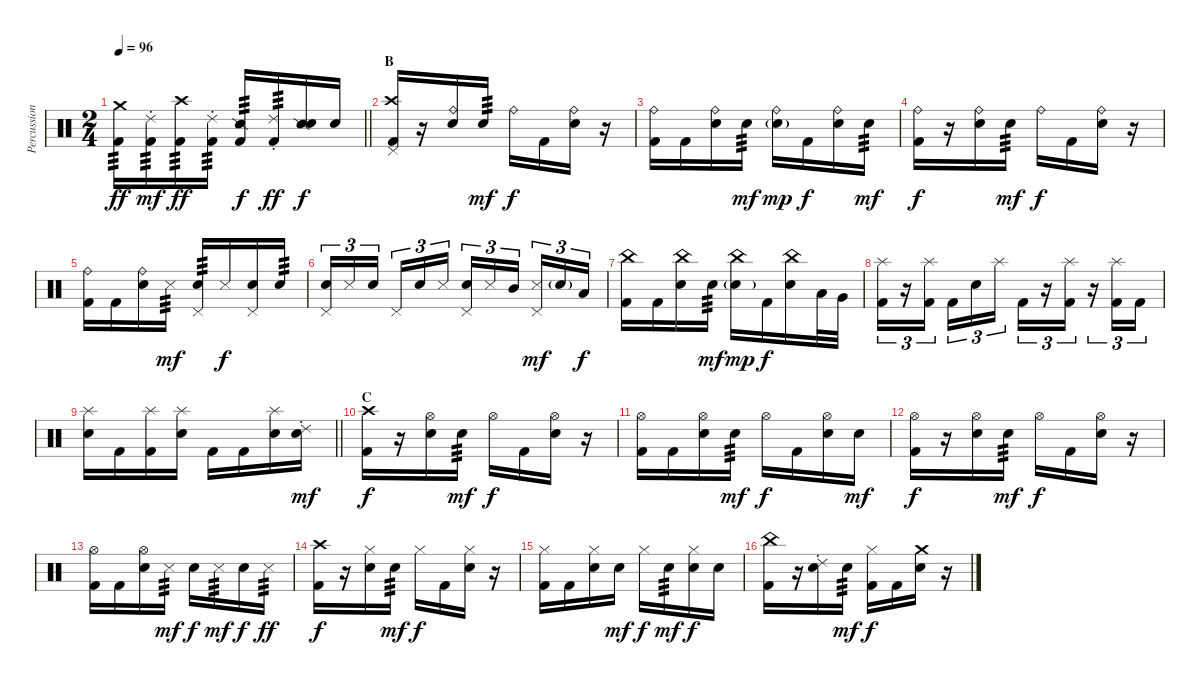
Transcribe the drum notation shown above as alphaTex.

\track ("Percussion" "Percussion") {instrument percussion}
\staff {score}
\articulation defaults
\ts (2 4)
\tempo 96
\clef neutral
\barLineRight lightlight
\ks c
("Crash medium (hit)" "Kick (hit) 2").16{tp 3 dy ff} ("Ride (choke) 2" "Kick (hit) 2").16{tp 3 dy mf} ("Crash high (hit)" "Kick (hit) 2").16{tp 3 dy ff} ("Ride (choke) 2" "Kick (hit) 2").16{tp 3} ("Snare (side stick) 2" "Kick (hit) 2").16{tp 3 dy f} ("Ride (choke) 2" "Kick (hit) 2").16{tp 3 dy ff} ("Snare (side stick) 2" "Snare (hit) 2").16{dy f} "Snare (hit)".16 |
\section ("" "B")
("Crash high (hit)" "Pedal Hi-Hat (hit)" "Kick (hit) 2").16 r.16 ("Ride (bell)" "Snare (hit) 2").16 "Snare (hit) 2".16{tp 3 dy mf} "Ride (bell)".16{dy f} "Kick (hit) 2".16 ("Ride (bell)" "Snare (hit) 2").16 r.16 |
("Ride (bell)" "Kick (hit) 2").16 "Kick (hit) 2".16 ("Ride (bell)" "Snare (hit) 2").16 "Snare (hit) 2".16{tp 3 dy mf} ("Ride (bell)" "Snare (hit) 2"{g}).16{dy mp} "Kick (hit) 2".16{dy f} ("Ride (bell)" "Snare (hit) 2").16 "Snare (hit) 2".16{tp 3 dy mf} |
("Ride (bell)" "Kick (hit) 2").16{dy f} r.16 ("Ride (bell)" "Snare (hit) 2").16 "Snare (hit) 2".16{tp 3 dy mf} "Ride (bell)".16{dy f} "Kick (hit) 2".16 ("Ride (bell)" "Snare (hit) 2").16 r.16 |
("Ride (bell)" "Kick (hit) 2").16 "Kick (hit) 2".16 ("Ride (bell)" "Snare (hit) 2").16 "Metronome (hit)".16{tp 3 dy mf} ("Pedal Hi-Hat (hit)" "Snare (hit) 2").16{tp 3} "Metronome (hit)".16{dy f} ("Pedal Hi-Hat (hit)" "Snare (hit) 2").16 "Snare (hit) 2".16{tp 3} |
("Pedal Hi-Hat (hit)" "Snare (hit) 2").16{tu (3 2)} "Metronome (hit)".16{tu (3 2)} "Snare (hit) 2".16{tu (3 2) beam splitsecondary} "Pedal Hi-Hat (hit)".16{tu (3 2)} "Snare (hit) 2".16{tu (3 2)} "Metronome (hit)".16{tu (3 2)} ("Pedal Hi-Hat (hit)" "Snare (hit) 2").16{tu (3 2)} "Metronome (hit)".16{tu (3 2)} "Mid Tom (hit)".16{tu (3 2) beam splitsecondary} ("Pedal Hi-Hat (hit)" "Metronome (hit)").16{tu (3 2) dy mf} "Snare (hit) 2"{g}.16{tu (3 2)} "Low Tom (hit)".16{tu (3 2) dy f} |
("China (hit)" "Kick (hit) 2").16 "Kick (hit) 2".16 ("China (hit)" "Snare (hit) 2").16 "Snare (hit) 2".16{tp 3 dy mf} ("China (hit)" "Snare (hit) 2"{g}).16{dy mp} "Kick (hit) 2".16{dy f} ("China (hit)" "Snare (hit) 2").16 "Low Tom (hit)".32 "Very Low Tom (hit)".32 |
("Splash (hit)" "Kick (hit) 2").16{tu (3 2)} r.16{tu (3 2)} ("Splash (hit)" "Kick (hit) 2").16{tu (3 2) beam splitsecondary} "Kick (hit) 2".16{tu (3 2)} "Snare (hit) 2".16{tu (3 2)} "Splash (hit)".16{tu (3 2)} "Kick (hit) 2".16{tu (3 2)} r.16{tu (3 2)} ("Splash (hit)" "Kick (hit) 2").16{tu (3 2)} r.16{tu (3 2)} ("Splash (hit)" "Kick (hit) 2").16{tu (3 2)} "Kick (hit) 2".16{tu (3 2)} |
\barLineRight lightlight
("Splash (hit)" "Snare (hit) 2").16 "Kick (hit) 2".16 ("Splash (hit)" "Kick (hit) 2").16 ("Splash (hit)" "Snare (hit) 2").16 "Kick (hit) 2".16 "Kick (hit) 2".16 ("Splash (hit)" "Snare (hit) 2").16 ("Ride (choke) 2" "Snare (hit) 2").16{dy mf} |
\section ("" "C")
("Crash high (hit)" "Kick (hit) 2").16{dy f} r.16 ("Hi-Hat (open)" "Snare (hit) 2").16 "Snare (hit) 2".16{tp 3 dy mf} "Hi-Hat (open)".16{dy f} "Kick (hit) 2".16 ("Hi-Hat (open)" "Snare (hit) 2").16 r.16 |
("Hi-Hat (open)" "Kick (hit) 2").16 "Kick (hit) 2".16 ("Hi-Hat (open)" "Snare (hit) 2").16 "Snare (hit) 2".16{tp 3 dy mf} "Hi-Hat (open)".16{dy f} "Kick (hit) 2".16 ("Hi-Hat (open)" "Snare (hit) 2").16 "Snare (hit) 2".16{dy mf} |
("Hi-Hat (open)" "Kick (hit) 2").16{dy f} r.16 ("Hi-Hat (open)" "Snare (hit) 2").16 "Snare (hit) 2".16{tp 3 dy mf} "Hi-Hat (open)".16{dy f} "Kick (hit) 2".16 ("Hi-Hat (open)" "Snare (hit) 2").16 r.16 |
("Hi-Hat (open)" "Kick (hit) 2").16 "Kick (hit) 2".16 ("Hi-Hat (open)" "Snare (hit) 2").16 "Metronome (hit)".16{tp 3 dy mf} "Snare (hit) 2".16{dy f} "Metronome (hit)".16{tp 3 dy mf} "Snare (hit) 2".16{dy f} "Metronome (hit)".16{tp 3 dy ff} |
("Crash high (hit)" "Kick (hit) 2").16{dy f} r.16 ("Hi-Hat (closed)" "Snare (hit) 2").16 "Snare (hit) 2".16{tp 3 dy mf} "Hi-Hat (closed)".16{dy f} "Kick (hit) 2".16 ("Hi-Hat (closed)" "Snare (hit) 2").16 r.16 |
("Hi-Hat (closed)" "Kick (hit) 2").16 "Kick (hit) 2".16 ("Hi-Hat (closed)" "Snare (hit) 2").16 "Snare (hit) 2".16{dy mf} "Hi-Hat (closed)".16{dy f} "Snare (hit) 2".16{tp 3 dy mf} ("Hi-Hat (closed)" "Snare (hit) 2").16{dy f} "Snare (hit) 2".16 |
("China (hit)" "Kick (hit) 2").16 r.16 ("Ride (choke) 2" "Snare (hit) 2").16 "Snare (hit) 2".16{tp 3 dy mf} ("Hi-Hat (closed)" "Kick (hit) 2").16{dy f} "Kick (hit) 2".16 ("Crash medium (hit)" "Snare (hit) 2").16 r.16
